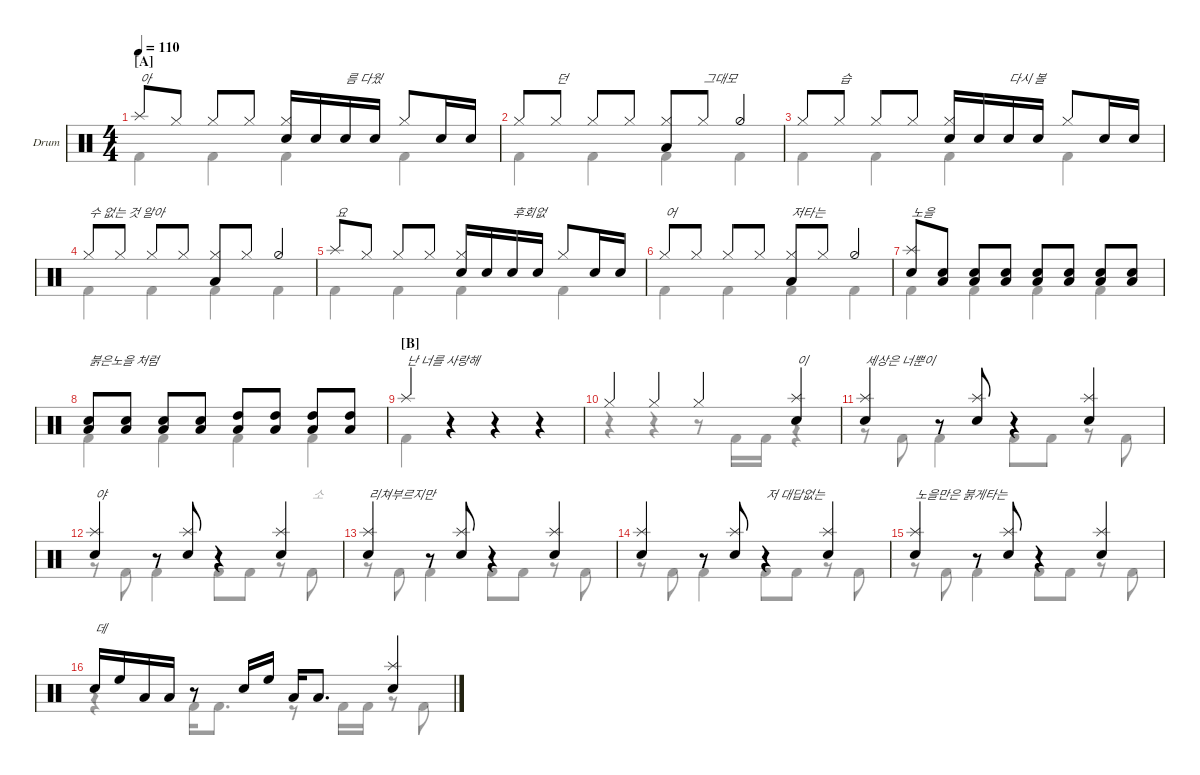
\defaultSystemsLayout 4
\hideDynamics
\bracketExtendMode nobrackets
\firstSystemTrackNameOrientation horizontal
\track ("Drumkit" "Drum") {instrument percussion}
\staff {score}
\articulation defaults
\voice
\ts (4 4)
\section ("A" "")
\tempo 110
\clef neutral
\ks c "Splash (hit)".8{txt "아" dy mf beam Up} "Hi-Hat (closed)".8{beam Up} "Hi-Hat (closed)".8{beam Up} "Hi-Hat (closed)".8{beam Up}
("Hi-Hat (closed)" "Snare (hit) 2").16{beam Up} "Snare (hit) 2".16{beam Up} "Snare (hit) 2".16{txt "름 다웠" beam Up} "Snare (hit) 2".16{beam Up} "Hi-Hat (closed)".8{beam Up} "Snare (hit) 2".16{beam Up} "Snare (hit) 2".16{beam Up} |
"Hi-Hat (closed)".8{beam Up} "Hi-Hat (closed)".8{txt "던" beam Up} "Hi-Hat (closed)".8{beam Up} "Hi-Hat (closed)".8{beam Up} ("Hi-Hat (closed)" "Low Tom (hit)").8{beam Up} "Hi-Hat (closed)".8{txt "그대모" beam Up} "Hi-Hat (half)".4{beam Up} |
"Hi-Hat (closed)".8{beam Up} "Hi-Hat (closed)".8{txt "습" beam Up} "Hi-Hat (closed)".8{beam Up} "Hi-Hat (closed)".8{beam Up} ("Hi-Hat (closed)" "Snare (hit) 2").16{beam Up} "Snare (hit) 2".16{beam Up} "Snare (hit) 2".16{txt "다시 볼" beam Up} "Snare (hit) 2".16{beam Up} "Hi-Hat (closed)".8{beam Up} "Snare (hit) 2".16{beam Up} "Snare (hit) 2".16{beam Up} |
"Hi-Hat (closed)".8{txt "수 없는 것 알아" beam Up} "Hi-Hat (closed)".8{beam Up} "Hi-Hat (closed)".8{beam Up} "Hi-Hat (closed)".8{beam Up} ("Hi-Hat (closed)" "Low Tom (hit)").8{beam Up} "Hi-Hat (closed)".8{beam Up} "Hi-Hat (half)".4{beam Up} |
"Splash (hit)".8{txt "요" beam Up} "Hi-Hat (closed)".8{beam Up} "Hi-Hat (closed)".8{beam Up} "Hi-Hat (closed)".8{beam Up} ("Hi-Hat (closed)" "Snare (hit) 2").16{beam Up} "Snare (hit) 2".16{beam Up} "Snare (hit) 2".16{txt "후회없" beam Up} "Snare (hit) 2".16{beam Up} "Hi-Hat (closed)".8{beam Up} "Snare (hit) 2".16{beam Up} "Snare (hit) 2".16{beam Up} |
"Hi-Hat (closed)".8{txt "어" beam Up} "Hi-Hat (closed)".8{beam Up} "Hi-Hat (closed)".8{beam Up} "Hi-Hat (closed)".8{beam Up} ("Hi-Hat (closed)" "Low Tom (hit)").8{txt "저타는" beam Up} "Hi-Hat (closed)".8{beam Up} "Hi-Hat (half)".4{beam Up} |
("Splash (hit)" "Snare (hit) 2").8{txt "노을" beam Up} ("Snare (hit) 2" "Low Tom (hit)").8{beam Up} ("Snare (hit) 2" "Low Tom (hit)").8{beam Up} ("Snare (hit) 2" "Low Tom (hit)").8{beam Up} ("Snare (hit) 2" "Low Tom (hit)").8{beam Up} ("Snare (hit) 2" "Low Tom (hit)").8{beam Up} ("Snare (hit) 2" "Low Tom (hit)").8{beam Up} ("Snare (hit) 2" "Low Tom (hit)").8{beam Up} |
("Snare (hit) 2" "Low Tom (hit)").8{txt "붉은노을 처럼" beam Up} ("Snare (hit) 2" "Low Tom (hit)").8{beam Up} ("Snare (hit) 2" "Low Tom (hit)").8{beam Up} ("Snare (hit) 2" "Low Tom (hit)").8{beam Up} ("High Tom (hit)" "Low Tom (hit)").8{beam Up} ("High Tom (hit)" "Low Tom (hit)").8{beam Up} ("High Tom (hit)" "Low Tom (hit)").8{beam Up} ("High Tom (hit)" "Low Tom (hit)").8{beam Up} |
\section ("B" "")
"Splash (hit)".4{txt "난 너를 사랑해" beam Up} r.4{beam Up} r.4{beam Up} r.4{beam Up} |
"Hi-Hat (closed)".4{beam Up} "Hi-Hat (closed)".4{beam Up} "Hi-Hat (closed)".4{beam Up} ("Splash (hit)" "Snare (hit) 2").4{txt "이" beam Up} |
("Splash (hit)" "Snare (hit) 2").4{txt "세상은 너뿐이" beam Up} r.8{beam Up} ("Splash (hit)" "Snare (hit) 2").8{beam Up} r.4{beam Up} ("Splash (hit)" "Snare (hit) 2").4{beam Up} |
("Splash (hit)" "Snare (hit) 2").4{txt "야" beam Up} r.8{beam Up} ("Splash (hit)" "Snare (hit) 2").8{beam Up} r.4{beam Up} ("Splash (hit)" "Snare (hit) 2").4{beam Up} |
("Splash (hit)" "Snare (hit) 2").4{txt "리쳐부르지만" beam Up} r.8{beam Up} ("Splash (hit)" "Snare (hit) 2").8{beam Up} r.4{beam Up} ("Splash (hit)" "Snare (hit) 2").4{beam Up} |
("Splash (hit)" "Snare (hit) 2").4{beam Up} r.8{beam Up} ("Splash (hit)" "Snare (hit) 2").8{beam Up} r.4{txt "저 대답없는" beam Up} ("Splash (hit)" "Snare (hit) 2").4{beam Up} |
("Splash (hit)" "Snare (hit) 2").4{txt "노을만은 붉게타는" beam Up} r.8{beam Up} ("Splash (hit)" "Snare (hit) 2").8{beam Up} r.4{beam Up} ("Splash (hit)" "Snare (hit) 2").4{beam Up} |
"Snare (hit) 2".16{txt "데" beam Up} "High Floor Tom (hit)".16{beam Up} "Low Tom (hit)".16{beam Up} "Low Tom (hit)".16{beam Up} r.8{beam Up} "Snare (hit) 2".16{beam Up} "High Floor Tom (hit)".16{beam Up} "Low Tom (hit)".16{beam Up} "Low Tom (hit)".8{d beam Up} ("Snare (hit) 2" "Splash (hit)").4{beam Up}
\voice
\clef neutral
\ottava regular
\simile none
\ks c
|
|
|
|
|
|
|
|
|
|
|
|
|
|
|
\voice
\clef neutral
\ottava regular
\simile none
\ks c "Kick (hit) 2".4{dy mf beam Down} "Kick (hit) 2".4{beam Down} "Kick (hit) 2".4{beam Down} "Kick (hit) 2".4{beam Down}
|
"Kick (hit) 2".4{beam Down} "Kick (hit) 2".4{beam Down} "Kick (hit) 2".4{beam Down} "Kick (hit) 2".4{beam Down} |
"Kick (hit) 2".4{beam Down} "Kick (hit) 2".4{beam Down} "Kick (hit) 2".4{beam Down} "Kick (hit) 2".4{beam Down} |
"Kick (hit) 2".4{beam Down} "Kick (hit) 2".4{beam Down} "Kick (hit) 2".4{beam Down} "Kick (hit) 2".4{beam Down} |
"Kick (hit) 2".4{beam Down} "Kick (hit) 2".4{beam Down} "Kick (hit) 2".4{beam Down} "Kick (hit) 2".4{beam Down} |
"Kick (hit) 2".4{beam Down} "Kick (hit) 2".4{beam Down} "Kick (hit) 2".4{beam Down} "Kick (hit) 2".4{beam Down} |
"Kick (hit) 2".4{beam Down} "Kick (hit) 2".4{beam Down} "Kick (hit) 2".4{beam Down} "Kick (hit) 2".4{beam Down} |
"Kick (hit) 2".4{beam Down} "Kick (hit) 2".4{beam Down} "Kick (hit) 2".4{beam Down} "Kick (hit) 2".4{beam Down} |
"Kick (hit) 2".4{beam Down} r.4{beam Down} r.4{beam Down} r.4{beam Down} |
r.4{beam Down} r.4{beam Down} r.8{beam Down} "Kick (hit) 2".16{beam Down} "Kick (hit) 2".16{beam Down} r.4{beam Down} |
r.8{beam Down} "Kick (hit) 2".8{beam Down} "Kick (hit) 2".4{beam Down} "Kick (hit) 2".8{beam Down} "Kick (hit) 2".8{beam Down} r.8{beam Down} "Kick (hit) 2".8{beam Down} |
r.8{beam Down} "Kick (hit) 2".8{beam Down} "Kick (hit) 2".4{beam Down} "Kick (hit) 2".8{beam Down} "Kick (hit) 2".8{beam Down} r.8{beam Down} "Kick (hit) 2".8{txt "소" beam Down} |
r.8{beam Down} "Kick (hit) 2".8{beam Down} "Kick (hit) 2".4{beam Down} "Kick (hit) 2".8{beam Down} "Kick (hit) 2".8{beam Down} r.8{beam Down} "Kick (hit) 2".8{beam Down} |
r.8{beam Down} "Kick (hit) 2".8{beam Down} "Kick (hit) 2".4{beam Down} "Kick (hit) 2".8{beam Down} "Kick (hit) 2".8{beam Down} r.8{beam Down} "Kick (hit) 2".8{beam Down} |
r.8{beam Down} "Kick (hit) 2".8{beam Down} "Kick (hit) 2".4{beam Down} "Kick (hit) 2".8{beam Down} "Kick (hit) 2".8{beam Down} r.8{beam Down} "Kick (hit) 2".8{beam Down} |
r.4{beam Down} "Kick (hit) 2".16{beam Down} "Kick (hit) 2".8{d beam Down} r.8{beam Down} "Kick (hit) 2".16{beam Down} "Kick (hit) 2".16{beam Down} r.8{beam Down} "Kick (hit) 2".8{beam Down}
